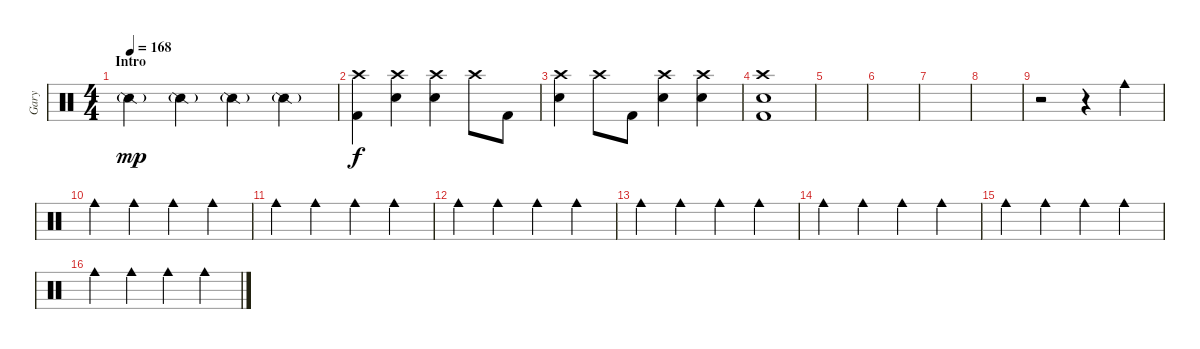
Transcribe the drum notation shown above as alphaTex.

\track ("Gary" "Gary") {instrument percussion}
\staff {score}
\articulation defaults
\ts (4 4)
\section ("" "Intro")
\tempo 168
\clef neutral
\ks c "Snare (side stick) 2"{g}.4{dy mp} "Snare (side stick) 2"{g}.4 "Snare (side stick) 2"{g}.4 "Snare (side stick) 2"{g}.4
|
("Crash high (hit)" "Kick (hit) 2").4{dy f} ("Crash high (hit)" "Electric Snare (hit)").4 ("Crash high (hit)" "Electric Snare (hit)").4 "Crash high (hit)".8 "Kick (hit) 2".8 |
("Crash high (hit)" "Electric Snare (hit)").4 "Crash high (hit)".8 "Kick (hit) 2".8 ("Crash high (hit)" "Electric Snare (hit)").4 ("Crash high (hit)" "Electric Snare (hit)").4 |
("Crash high (hit)" "Electric Snare (hit)" "Kick (hit) 2").1 |
|
|
|
|
r.2 r.4 "Cowbell medium (hit)".4 |
"Cowbell medium (hit)".4 "Cowbell medium (hit)".4 "Cowbell medium (hit)".4 "Cowbell medium (hit)".4 |
"Cowbell medium (hit)".4 "Cowbell medium (hit)".4 "Cowbell medium (hit)".4 "Cowbell medium (hit)".4 |
"Cowbell medium (hit)".4 "Cowbell medium (hit)".4 "Cowbell medium (hit)".4 "Cowbell medium (hit)".4 |
"Cowbell medium (hit)".4 "Cowbell medium (hit)".4 "Cowbell medium (hit)".4 "Cowbell medium (hit)".4 |
"Cowbell medium (hit)".4 "Cowbell medium (hit)".4 "Cowbell medium (hit)".4 "Cowbell medium (hit)".4 |
"Cowbell medium (hit)".4 "Cowbell medium (hit)".4 "Cowbell medium (hit)".4 "Cowbell medium (hit)".4 |
"Cowbell medium (hit)".4 "Cowbell medium (hit)".4 "Cowbell medium (hit)".4 "Cowbell medium (hit)".4
